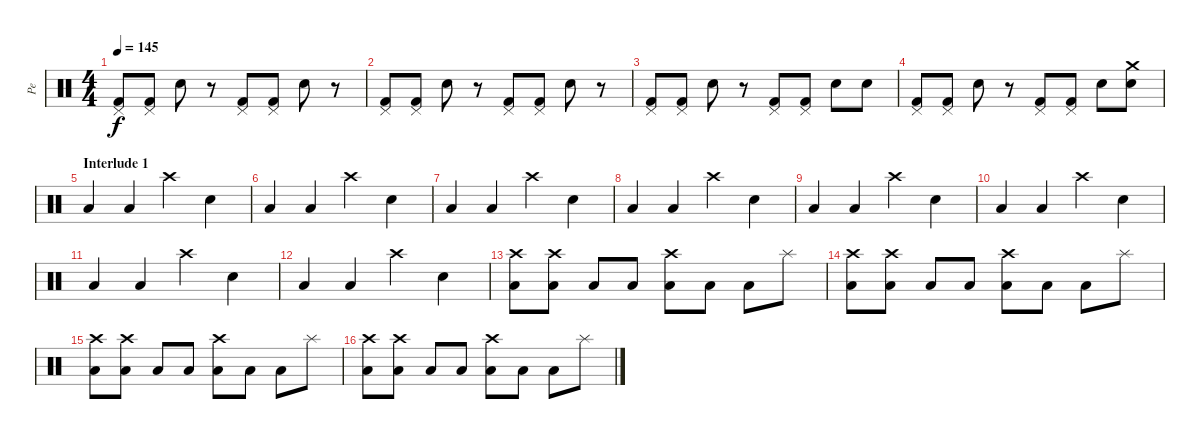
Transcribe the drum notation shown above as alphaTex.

\track ("Pe" "Pe") {instrument percussion}
\staff {score}
\articulation defaults
\ts (4 4)
\tempo 145
\clef neutral
\ks c
("Pedal Hi-Hat (hit)" "Kick (hit) 2").8{dy f} ("Pedal Hi-Hat (hit)" "Kick (hit) 2").8 "Electric Snare (hit)".8 r.8 ("Pedal Hi-Hat (hit)" "Kick (hit) 2").8 ("Pedal Hi-Hat (hit)" "Kick (hit) 2").8 "Electric Snare (hit)".8 r.8 |
("Pedal Hi-Hat (hit)" "Kick (hit) 2").8 ("Pedal Hi-Hat (hit)" "Kick (hit) 2").8 "Electric Snare (hit)".8 r.8 ("Pedal Hi-Hat (hit)" "Kick (hit) 2").8 ("Pedal Hi-Hat (hit)" "Kick (hit) 2").8 "Electric Snare (hit)".8 r.8 |
("Pedal Hi-Hat (hit)" "Kick (hit) 2").8 ("Pedal Hi-Hat (hit)" "Kick (hit) 2").8 "Electric Snare (hit)".8 r.8 ("Pedal Hi-Hat (hit)" "Kick (hit) 2").8 ("Pedal Hi-Hat (hit)" "Kick (hit) 2").8 "Electric Snare (hit)".8 "Electric Snare (hit)".8 |
("Pedal Hi-Hat (hit)" "Kick (hit) 2").8 ("Pedal Hi-Hat (hit)" "Kick (hit) 2").8 "Electric Snare (hit)".8 r.8 ("Pedal Hi-Hat (hit)" "Kick (hit) 2").8 ("Pedal Hi-Hat (hit)" "Kick (hit) 2").8 "Electric Snare (hit)".8 ("Crash medium (hit)" "Electric Snare (hit)").8 |
\section ("" "Interlude 1")
"Low Tom (hit)".4 "Low Floor Tom (hit)".4 "Crash high (hit)".4 "Electric Snare (hit)".4 |
"Low Tom (hit)".4 "Low Floor Tom (hit)".4 "Crash high (hit)".4 "Electric Snare (hit)".4 |
"Low Tom (hit)".4 "Low Floor Tom (hit)".4 "Crash high (hit)".4 "Electric Snare (hit)".4 |
"Low Tom (hit)".4 "Low Floor Tom (hit)".4 "Crash high (hit)".4 "Electric Snare (hit)".4 |
"Low Tom (hit)".4 "Low Floor Tom (hit)".4 "Crash high (hit)".4 "Electric Snare (hit)".4 |
"Low Tom (hit)".4 "Low Floor Tom (hit)".4 "Crash high (hit)".4 "Electric Snare (hit)".4 |
"Low Tom (hit)".4 "Low Floor Tom (hit)".4 "Crash high (hit)".4 "Electric Snare (hit)".4 |
"Low Tom (hit)".4 "Low Floor Tom (hit)".4 "Crash high (hit)".4 "Electric Snare (hit)".4 |
("Crash high (hit)" "Low Floor Tom (hit)").8 ("Crash high (hit)" "Low Floor Tom (hit)").8 "Low Floor Tom (hit)".8 "Low Floor Tom (hit)".8 ("Crash high (hit)" "Low Floor Tom (hit)").8 "Low Floor Tom (hit)".8 "Low Floor Tom (hit)".8 "Splash (hit)".8 |
("Crash high (hit)" "Low Floor Tom (hit)").8 ("Crash high (hit)" "Low Floor Tom (hit)").8 "Low Floor Tom (hit)".8 "Low Floor Tom (hit)".8 ("Crash high (hit)" "Low Floor Tom (hit)").8 "Low Floor Tom (hit)".8 "Low Floor Tom (hit)".8 "Splash (hit)".8 |
("Crash high (hit)" "Low Floor Tom (hit)").8 ("Crash high (hit)" "Low Floor Tom (hit)").8 "Low Floor Tom (hit)".8 "Low Floor Tom (hit)".8 ("Crash high (hit)" "Low Floor Tom (hit)").8 "Low Floor Tom (hit)".8 "Low Floor Tom (hit)".8 "Splash (hit)".8 |
("Crash high (hit)" "Low Floor Tom (hit)").8 ("Crash high (hit)" "Low Floor Tom (hit)").8 "Low Floor Tom (hit)".8 "Low Floor Tom (hit)".8 ("Crash high (hit)" "Low Floor Tom (hit)").8 "Low Floor Tom (hit)".8 "Low Floor Tom (hit)".8 "Splash (hit)".8
